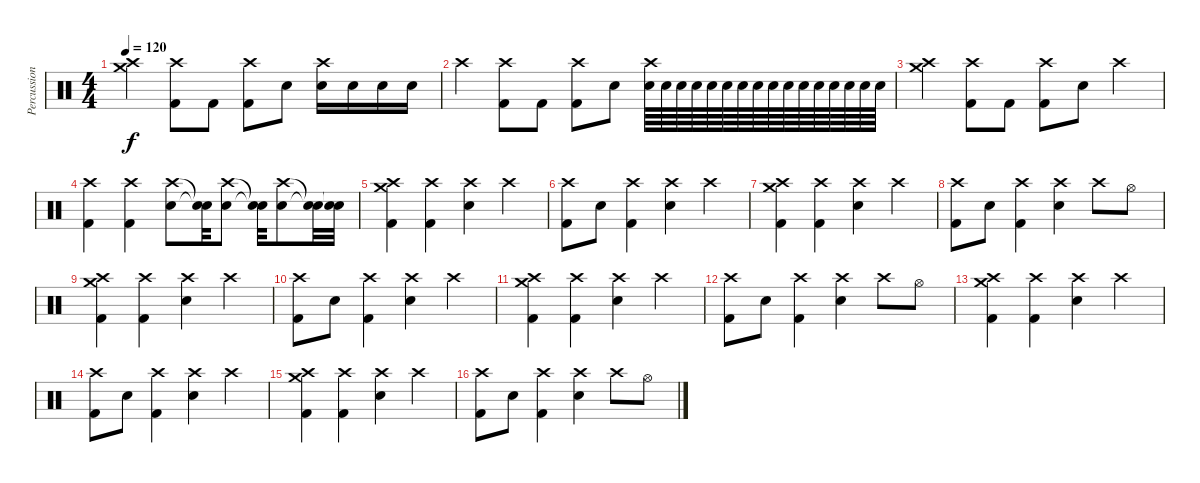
\track ("Percussioni" "Percussion") {instrument percussion}
\staff {score}
\articulation defaults
\ts (4 4)
\tempo 120
\clef neutral
\ks c
("Crash high (hit)" "Crash medium (hit)").4{dy f} ("Crash high (hit)" "Kick (hit) 2").8 "Kick (hit) 2".8 ("Crash high (hit)" "Kick (hit) 2").8 "Snare (hit) 2".8 ("Crash high (hit)" "Snare (hit) 2").16 "Snare (hit) 2".16 "Snare (hit) 2".16 "Snare (hit) 2".16 |
"Crash high (hit)".4 ("Crash high (hit)" "Kick (hit) 2").8 "Kick (hit) 2".8 ("Crash high (hit)" "Kick (hit) 2").8 "Snare (hit) 2".8 ("Crash high (hit)" "Snare (hit) 2").64 "Snare (hit) 2".64 "Snare (hit) 2".64 "Snare (hit) 2".64 "Snare (hit) 2".64 "Snare (hit) 2".64 "Snare (hit) 2".64 "Snare (hit) 2".64 "Snare (hit) 2".64 "Snare (hit) 2".64 "Snare (hit) 2".64 "Snare (hit) 2".64 "Snare (hit) 2".64 "Snare (hit) 2".64 "Snare (hit) 2".64 "Snare (hit) 2".64 |
("Crash high (hit)" "Crash medium (hit)").4 ("Crash high (hit)" "Kick (hit) 2").8 "Kick (hit) 2".8 ("Crash high (hit)" "Kick (hit) 2").8 "Snare (hit) 2".8 "Crash high (hit)".4 |
("Crash high (hit)" "Kick (hit) 2").4 ("Crash high (hit)" "Kick (hit) 2").4 ("Crash high (hit)" "Snare (hit) 2").8 ("Snare (hit)"{t} "Snare (hit)"{t}).32 ("Crash high (hit)" "Snare (hit) 2").8 ("Snare (hit)"{t} "Snare (hit)"{t}).32 ("Crash high (hit)" "Snare (hit) 2").8 ("Snare (hit)"{t} "Snare (hit)"{t}).32 ("Snare (hit)"{t} "Snare (hit)"{t}).32 |
("Crash high (hit)" "Kick (hit) 2" "Crash medium (hit)").4 ("Crash high (hit)" "Kick (hit) 2").4 ("Crash high (hit)" "Snare (hit) 2").4 "Crash high (hit)".4 |
("Crash high (hit)" "Kick (hit) 2").8 "Snare (hit) 2".8 ("Crash high (hit)" "Kick (hit) 2").4 ("Crash high (hit)" "Snare (hit) 2").4 "Crash high (hit)".4 |
("Crash high (hit)" "Kick (hit) 2" "Crash medium (hit)").4 ("Crash high (hit)" "Kick (hit) 2").4 ("Crash high (hit)" "Snare (hit) 2").4 "Crash high (hit)".4 |
("Crash high (hit)" "Kick (hit) 2").8 "Snare (hit) 2".8 ("Crash high (hit)" "Kick (hit) 2").4 ("Crash high (hit)" "Snare (hit) 2").4 "Crash high (hit)".8 "Hi-Hat (open)".8 |
("Crash high (hit)" "Kick (hit) 2" "Crash medium (hit)").4 ("Crash high (hit)" "Kick (hit) 2").4 ("Crash high (hit)" "Snare (hit) 2").4 "Crash high (hit)".4 |
("Crash high (hit)" "Kick (hit) 2").8 "Snare (hit) 2".8 ("Crash high (hit)" "Kick (hit) 2").4 ("Crash high (hit)" "Snare (hit) 2").4 "Crash high (hit)".4 |
("Crash high (hit)" "Kick (hit) 2" "Crash medium (hit)").4 ("Crash high (hit)" "Kick (hit) 2").4 ("Crash high (hit)" "Snare (hit) 2").4 "Crash high (hit)".4 |
("Crash high (hit)" "Kick (hit) 2").8 "Snare (hit) 2".8 ("Crash high (hit)" "Kick (hit) 2").4 ("Crash high (hit)" "Snare (hit) 2").4 "Crash high (hit)".8 "Hi-Hat (open)".8 |
("Crash high (hit)" "Kick (hit) 2" "Crash medium (hit)").4 ("Crash high (hit)" "Kick (hit) 2").4 ("Crash high (hit)" "Snare (hit) 2").4 "Crash high (hit)".4 |
("Crash high (hit)" "Kick (hit) 2").8 "Snare (hit) 2".8 ("Crash high (hit)" "Kick (hit) 2").4 ("Crash high (hit)" "Snare (hit) 2").4 "Crash high (hit)".4 |
("Crash high (hit)" "Kick (hit) 2" "Crash medium (hit)").4 ("Crash high (hit)" "Kick (hit) 2").4 ("Crash high (hit)" "Snare (hit) 2").4 "Crash high (hit)".4 |
("Crash high (hit)" "Kick (hit) 2").8 "Snare (hit) 2".8 ("Crash high (hit)" "Kick (hit) 2").4 ("Crash high (hit)" "Snare (hit) 2").4 "Crash high (hit)".8 "Hi-Hat (open)".8
